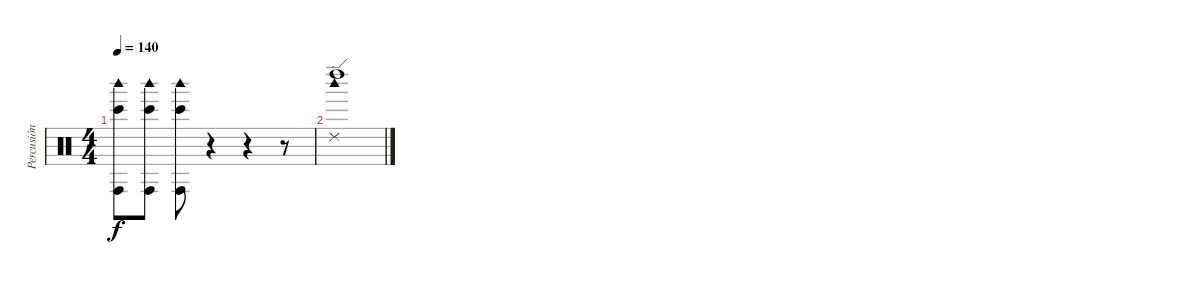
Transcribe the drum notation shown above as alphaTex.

\track ("Percusión" "Percusión") {instrument percussion}
\staff {score}
\articulation defaults
\ts (4 4)
\tempo 140
\clef neutral
\ks c
("Woodblock high (hit)" "Bongo High (hit)" "Conga high (hit)").8{dy f} ("Woodblock high (hit)" "Bongo High (hit)" "Conga high (hit)").8 ("Woodblock high (hit)" "Bongo High (hit)" "Conga high (hit)").8 r.4 r.4 r.8 |
("Woodblock high (hit)" "Left Maraca (hit)" "Ride (edge) 2").1
